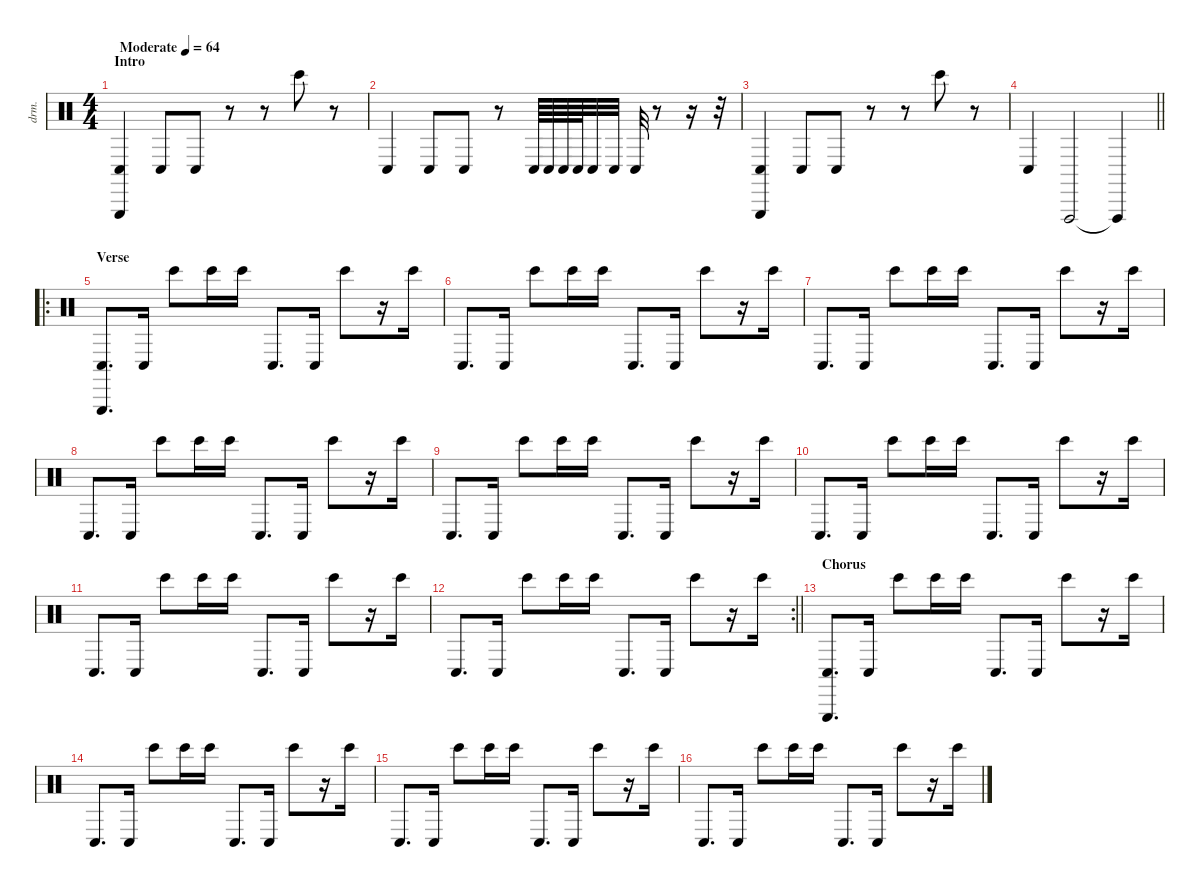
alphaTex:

\defaultSystemsLayout 4
\hideDynamics
\bracketExtendMode nobrackets
\track ("Percussions" "drm.") {instrument percussion}
\staff {score}
\articulation defaults
\ts (4 4)
\beaming (8 2 2 2 2)
\section ("" "Intro")
\tempo (64 "Moderate")
\clef neutral
\ks c
("Conga low (hit)" "Triangle (hit)").4{dy f} "Conga low (hit)".8 "Conga low (hit)".8 r.8 r.8 "Bongo High (hit)".8 r.8 |
"Conga low (hit)".4 "Conga low (hit)".8 "Conga low (hit)".8 r.8 "Conga low (hit)".64{dy pp} "Conga low (hit)".64{dy p} "Conga low (hit)".64{dy mp} "Conga low (hit)".64{dy mf} "Conga low (hit)".32{dy f} "Conga low (hit)".32 "Conga low (hit)".32{dy mp} r.8 r.16 r.32 |
("Conga low (hit)" "Triangle (hit)").4{dy f} "Conga low (hit)".8 "Conga low (hit)".8 r.8 r.8 "Bongo High (hit)".8 r.8 |
\barLineRight lightlight "Conga low (hit)".4{dy mf} "Vibraslap (hit)".2 "Vibraslap (hit)"{t}.4{dy f}
|
\ro
\section ("" "Verse")
("Conga low (hit)" "Triangle (hit)").8{d} "Conga low (hit)".16 "Bongo High (hit)".8 "Bongo High (hit)".16 "Bongo High (hit)".16 "Conga low (hit)".8{d} "Conga low (hit)".16 "Bongo High (hit)".8 r.16 "Bongo High (hit)".16 |
"Conga low (hit)".8{d} "Conga low (hit)".16 "Bongo High (hit)".8 "Bongo High (hit)".16 "Bongo High (hit)".16 "Conga low (hit)".8{d} "Conga low (hit)".16 "Bongo High (hit)".8 r.16 "Bongo High (hit)".16 |
"Conga low (hit)".8{d} "Conga low (hit)".16 "Bongo High (hit)".8 "Bongo High (hit)".16 "Bongo High (hit)".16 "Conga low (hit)".8{d} "Conga low (hit)".16 "Bongo High (hit)".8 r.16 "Bongo High (hit)".16 |
"Conga low (hit)".8{d} "Conga low (hit)".16 "Bongo High (hit)".8 "Bongo High (hit)".16 "Bongo High (hit)".16 "Conga low (hit)".8{d} "Conga low (hit)".16 "Bongo High (hit)".8 r.16 "Bongo High (hit)".16 |
"Conga low (hit)".8{d} "Conga low (hit)".16 "Bongo High (hit)".8 "Bongo High (hit)".16 "Bongo High (hit)".16 "Conga low (hit)".8{d} "Conga low (hit)".16 "Bongo High (hit)".8 r.16 "Bongo High (hit)".16 |
"Conga low (hit)".8{d} "Conga low (hit)".16 "Bongo High (hit)".8 "Bongo High (hit)".16 "Bongo High (hit)".16 "Conga low (hit)".8{d} "Conga low (hit)".16 "Bongo High (hit)".8 r.16 "Bongo High (hit)".16 |
"Conga low (hit)".8{d} "Conga low (hit)".16 "Bongo High (hit)".8 "Bongo High (hit)".16 "Bongo High (hit)".16 "Conga low (hit)".8{d} "Conga low (hit)".16 "Bongo High (hit)".8 r.16 "Bongo High (hit)".16 |
\rc 2
\barLineRight lightlight "Conga low (hit)".8{d} "Conga low (hit)".16 "Bongo High (hit)".8 "Bongo High (hit)".16 "Bongo High (hit)".16 "Conga low (hit)".8{d} "Conga low (hit)".16 "Bongo High (hit)".8
r.16 "Bongo High (hit)".16 |
\section ("" "Chorus")
("Conga low (hit)" "Triangle (hit)").8{d} "Conga low (hit)".16 "Bongo High (hit)".8 "Bongo High (hit)".16 "Bongo High (hit)".16 "Conga low (hit)".8{d} "Conga low (hit)".16 "Bongo High (hit)".8 r.16 "Bongo High (hit)".16 |
"Conga low (hit)".8{d} "Conga low (hit)".16 "Bongo High (hit)".8 "Bongo High (hit)".16 "Bongo High (hit)".16 "Conga low (hit)".8{d} "Conga low (hit)".16 "Bongo High (hit)".8 r.16 "Bongo High (hit)".16 |
"Conga low (hit)".8{d} "Conga low (hit)".16 "Bongo High (hit)".8 "Bongo High (hit)".16 "Bongo High (hit)".16 "Conga low (hit)".8{d} "Conga low (hit)".16 "Bongo High (hit)".8 r.16 "Bongo High (hit)".16 |
"Conga low (hit)".8{d} "Conga low (hit)".16 "Bongo High (hit)".8 "Bongo High (hit)".16 "Bongo High (hit)".16 "Conga low (hit)".8{d} "Conga low (hit)".16 "Bongo High (hit)".8 r.16 "Bongo High (hit)".16
